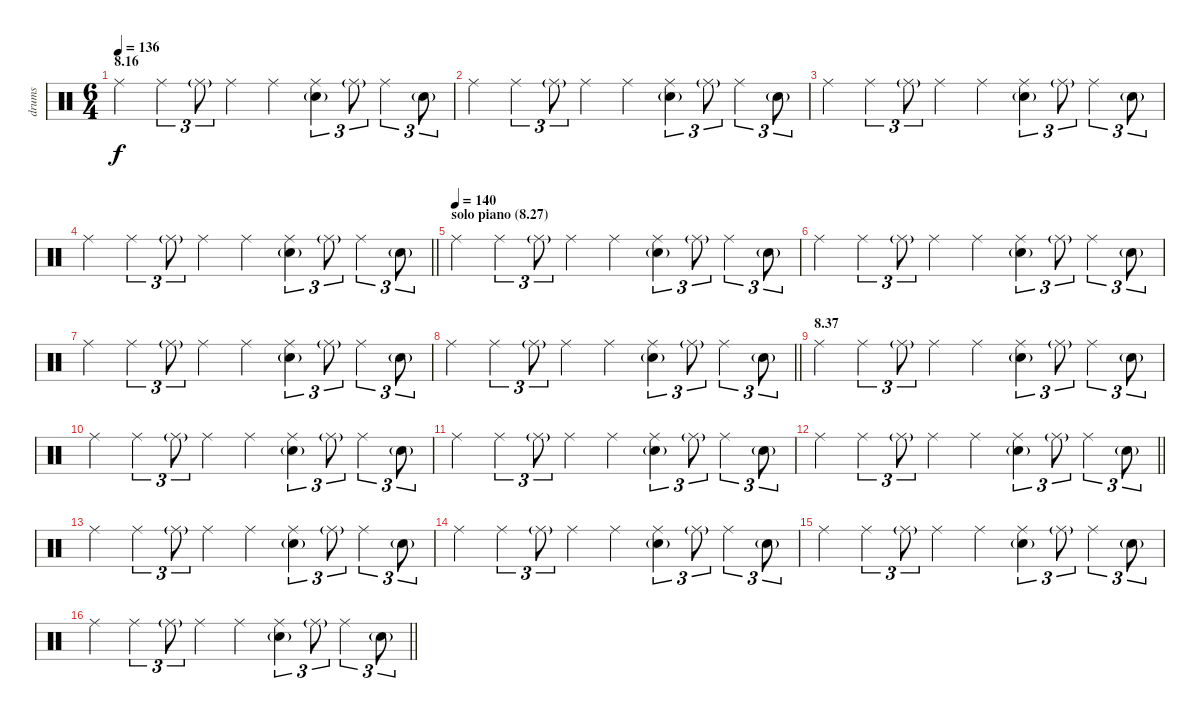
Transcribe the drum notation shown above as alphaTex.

\track ("drums" "drums") {instrument percussion}
\staff {score}
\articulation defaults
\ts (6 4)
\section ("" "8.16")
\tempo 136
\clef neutral
\ks c "Ride (middle)".4{dy f} "Ride (middle)".4{tu (3 2)} "Ride (middle)"{g}.8{tu (3 2)} "Ride (middle)".4 "Ride (middle)".4
("Ride (middle)" "Electric Snare (hit)"{g}).4{tu (3 2)} "Ride (middle)"{g}.8{tu (3 2)} "Ride (middle)".4{tu (3 2)} "Electric Snare (hit)"{g}.8{tu (3 2)} |
"Ride (middle)".4 "Ride (middle)".4{tu (3 2)} "Ride (middle)"{g}.8{tu (3 2)} "Ride (middle)".4 "Ride (middle)".4 ("Ride (middle)" "Electric Snare (hit)"{g}).4{tu (3 2)} "Ride (middle)"{g}.8{tu (3 2)} "Ride (middle)".4{tu (3 2)} "Electric Snare (hit)"{g}.8{tu (3 2)} |
"Ride (middle)".4 "Ride (middle)".4{tu (3 2)} "Ride (middle)"{g}.8{tu (3 2)} "Ride (middle)".4 "Ride (middle)".4 ("Ride (middle)" "Electric Snare (hit)"{g}).4{tu (3 2)} "Ride (middle)"{g}.8{tu (3 2)} "Ride (middle)".4{tu (3 2)} "Electric Snare (hit)"{g}.8{tu (3 2)} |
\barLineRight lightlight "Ride (middle)".4 "Ride (middle)".4{tu (3 2)} "Ride (middle)"{g}.8{tu (3 2)} "Ride (middle)".4 "Ride (middle)".4
("Ride (middle)" "Electric Snare (hit)"{g}).4{tu (3 2)} "Ride (middle)"{g}.8{tu (3 2)} "Ride (middle)".4{tu (3 2)} "Electric Snare (hit)"{g}.8{tu (3 2)} |
\section ("" "solo piano (8.27)")
\tempo (140)
"Ride (middle)".4 "Ride (middle)".4{tu (3 2)} "Ride (middle)"{g}.8{tu (3 2)} "Ride (middle)".4 "Ride (middle)".4 ("Ride (middle)" "Electric Snare (hit)"{g}).4{tu (3 2)} "Ride (middle)"{g}.8{tu (3 2)} "Ride (middle)".4{tu (3 2)} "Electric Snare (hit)"{g}.8{tu (3 2)} |
"Ride (middle)".4 "Ride (middle)".4{tu (3 2)} "Ride (middle)"{g}.8{tu (3 2)} "Ride (middle)".4 "Ride (middle)".4 ("Ride (middle)" "Electric Snare (hit)"{g}).4{tu (3 2)} "Ride (middle)"{g}.8{tu (3 2)} "Ride (middle)".4{tu (3 2)} "Electric Snare (hit)"{g}.8{tu (3 2)} |
"Ride (middle)".4 "Ride (middle)".4{tu (3 2)} "Ride (middle)"{g}.8{tu (3 2)} "Ride (middle)".4 "Ride (middle)".4 ("Ride (middle)" "Electric Snare (hit)"{g}).4{tu (3 2)} "Ride (middle)"{g}.8{tu (3 2)} "Ride (middle)".4{tu (3 2)} "Electric Snare (hit)"{g}.8{tu (3 2)} |
\barLineRight lightlight "Ride (middle)".4 "Ride (middle)".4{tu (3 2)} "Ride (middle)"{g}.8{tu (3 2)} "Ride (middle)".4 "Ride (middle)".4
("Ride (middle)" "Electric Snare (hit)"{g}).4{tu (3 2)} "Ride (middle)"{g}.8{tu (3 2)} "Ride (middle)".4{tu (3 2)} "Electric Snare (hit)"{g}.8{tu (3 2)} |
\section ("" "8.37")
"Ride (middle)".4 "Ride (middle)".4{tu (3 2)} "Ride (middle)"{g}.8{tu (3 2)} "Ride (middle)".4 "Ride (middle)".4 ("Ride (middle)" "Electric Snare (hit)"{g}).4{tu (3 2)} "Ride (middle)"{g}.8{tu (3 2)} "Ride (middle)".4{tu (3 2)} "Electric Snare (hit)"{g}.8{tu (3 2)} |
"Ride (middle)".4 "Ride (middle)".4{tu (3 2)} "Ride (middle)"{g}.8{tu (3 2)} "Ride (middle)".4 "Ride (middle)".4 ("Ride (middle)" "Electric Snare (hit)"{g}).4{tu (3 2)} "Ride (middle)"{g}.8{tu (3 2)} "Ride (middle)".4{tu (3 2)} "Electric Snare (hit)"{g}.8{tu (3 2)} |
"Ride (middle)".4 "Ride (middle)".4{tu (3 2)} "Ride (middle)"{g}.8{tu (3 2)} "Ride (middle)".4 "Ride (middle)".4 ("Ride (middle)" "Electric Snare (hit)"{g}).4{tu (3 2)} "Ride (middle)"{g}.8{tu (3 2)} "Ride (middle)".4{tu (3 2)} "Electric Snare (hit)"{g}.8{tu (3 2)} |
\barLineRight lightlight "Ride (middle)".4 "Ride (middle)".4{tu (3 2)} "Ride (middle)"{g}.8{tu (3 2)} "Ride (middle)".4 "Ride (middle)".4
("Ride (middle)" "Electric Snare (hit)"{g}).4{tu (3 2)} "Ride (middle)"{g}.8{tu (3 2)} "Ride (middle)".4{tu (3 2)} "Electric Snare (hit)"{g}.8{tu (3 2)} |
"Ride (middle)".4 "Ride (middle)".4{tu (3 2)} "Ride (middle)"{g}.8{tu (3 2)} "Ride (middle)".4 "Ride (middle)".4 ("Ride (middle)" "Electric Snare (hit)"{g}).4{tu (3 2)} "Ride (middle)"{g}.8{tu (3 2)} "Ride (middle)".4{tu (3 2)} "Electric Snare (hit)"{g}.8{tu (3 2)} |
"Ride (middle)".4 "Ride (middle)".4{tu (3 2)} "Ride (middle)"{g}.8{tu (3 2)} "Ride (middle)".4 "Ride (middle)".4 ("Ride (middle)" "Electric Snare (hit)"{g}).4{tu (3 2)} "Ride (middle)"{g}.8{tu (3 2)} "Ride (middle)".4{tu (3 2)} "Electric Snare (hit)"{g}.8{tu (3 2)} |
"Ride (middle)".4 "Ride (middle)".4{tu (3 2)} "Ride (middle)"{g}.8{tu (3 2)} "Ride (middle)".4 "Ride (middle)".4 ("Ride (middle)" "Electric Snare (hit)"{g}).4{tu (3 2)} "Ride (middle)"{g}.8{tu (3 2)} "Ride (middle)".4{tu (3 2)} "Electric Snare (hit)"{g}.8{tu (3 2)} |
\barLineRight lightlight "Ride (middle)".4 "Ride (middle)".4{tu (3 2)} "Ride (middle)"{g}.8{tu (3 2)} "Ride (middle)".4 "Ride (middle)".4
("Ride (middle)" "Electric Snare (hit)"{g}).4{tu (3 2)} "Ride (middle)"{g}.8{tu (3 2)} "Ride (middle)".4{tu (3 2)} "Electric Snare (hit)"{g}.8{tu (3 2)}
